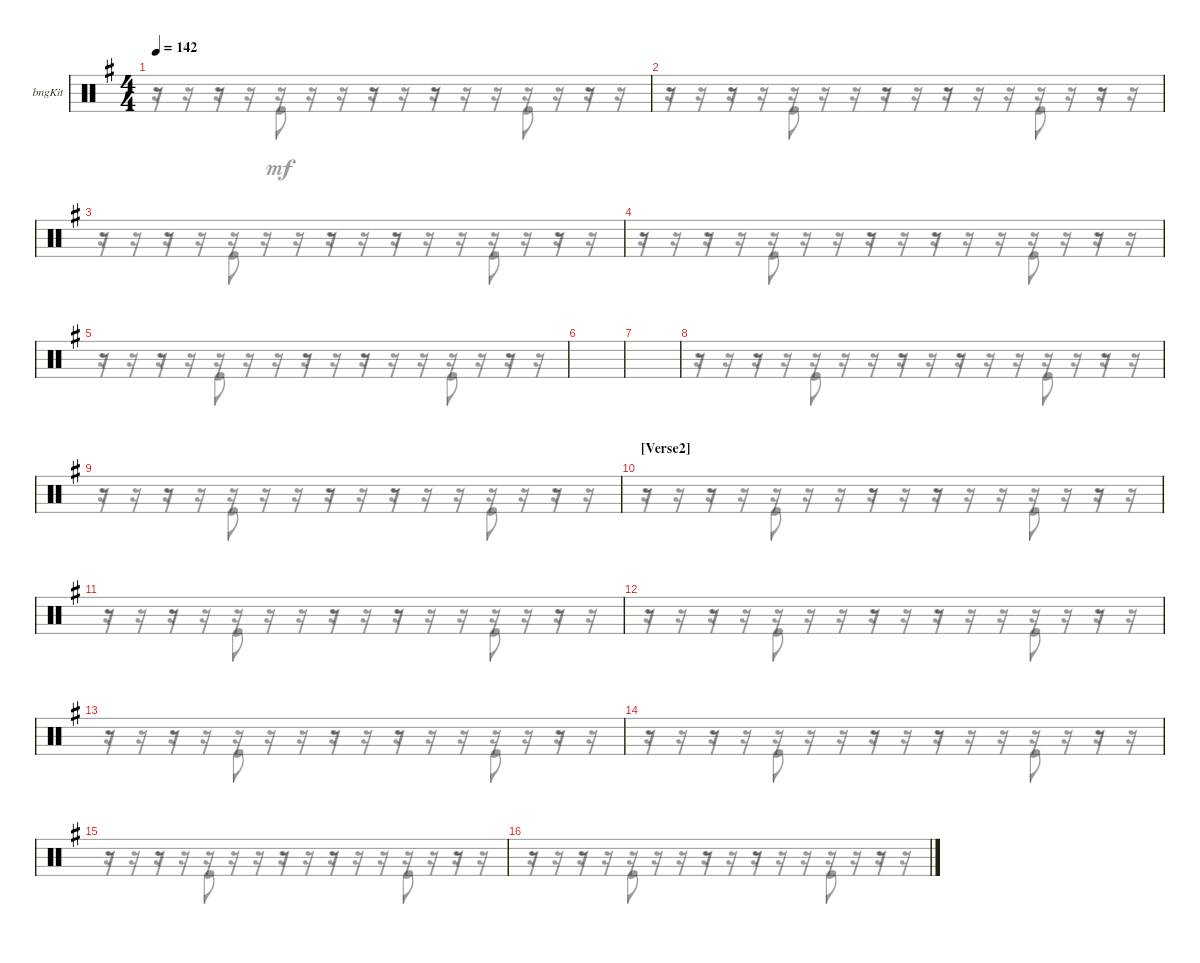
\bracketExtendMode groupsimilarinstruments
\firstSystemTrackNameOrientation horizontal
\otherSystemsTrackNameOrientation horizontal
\track ("Bongos" "bngKit") {instrument percussion}
\staff {score}
\articulation defaults
\voice
\ts (4 4)
\tempo 142
\clef neutral
\ks eminor
|
|
|
|
|
|
|
|
|
\section ("" "[Verse2]")
|
|
|
|
|
|
\voice
\clef neutral
\ks eminor
r.16{dy mf} r.16 r.16 r.16 r.16 r.16 r.16 r.16 r.16 r.16 r.16 r.16 r.16 r.16 r.16 r.16 |
r.16 r.16 r.16 r.16 r.16 r.16 r.16 r.16 r.16 r.16 r.16 r.16 r.16 r.16 r.16 r.16 |
r.16 r.16 r.16 r.16 r.16 r.16 r.16 r.16 r.16 r.16 r.16 r.16 r.16 r.16 r.16 r.16 |
r.16 r.16 r.16 r.16 r.16 r.16 r.16 r.16 r.16 r.16 r.16 r.16 r.16 r.16 r.16 r.16 |
r.16 r.16 r.16 r.16 r.16 r.16 r.16 r.16 r.16 r.16 r.16 r.16 r.16 r.16 r.16 r.16 |
|
|
r.16 r.16 r.16 r.16 r.16 r.16 r.16 r.16 r.16 r.16 r.16 r.16 r.16 r.16 r.16 r.16 |
r.16 r.16 r.16 r.16 r.16 r.16 r.16 r.16 r.16 r.16 r.16 r.16 r.16 r.16 r.16 r.16 |
r.16 r.16 r.16 r.16 r.16 r.16 r.16 r.16 r.16 r.16 r.16 r.16 r.16 r.16 r.16 r.16 |
r.16 r.16 r.16 r.16 r.16 r.16 r.16 r.16 r.16 r.16 r.16 r.16 r.16 r.16 r.16 r.16 |
r.16 r.16 r.16 r.16 r.16 r.16 r.16 r.16 r.16 r.16 r.16 r.16 r.16 r.16 r.16 r.16 |
r.16 r.16 r.16 r.16 r.16 r.16 r.16 r.16 r.16 r.16 r.16 r.16 r.16 r.16 r.16 r.16 |
r.16 r.16 r.16 r.16 r.16 r.16 r.16 r.16 r.16 r.16 r.16 r.16 r.16 r.16 r.16 r.16 |
r.16 r.16 r.16 r.16 r.16 r.16 r.16 r.16 r.16 r.16 r.16 r.16 r.16 r.16 r.16 r.16 |
r.16 r.16 r.16 r.16 r.16 r.16 r.16 r.16 r.16 r.16 r.16 r.16 r.16 r.16 r.16 r.16
\voice
\clef neutral
\ottava regular
\simile none
\ks eminor
r.16{dy mf} r.16 r.16 r.16 r.16 r.16 r.16 r.16 r.16 r.16 r.16 r.16 r.16 r.16 r.16 r.16 |
r.16 r.16 r.16 r.16 r.16 r.16 r.16 r.16 r.16 r.16 r.16 r.16 r.16 r.16 r.16 r.16 |
r.16 r.16 r.16 r.16 r.16 r.16 r.16 r.16 r.16 r.16 r.16 r.16 r.16 r.16 r.16 r.16 |
r.16 r.16 r.16 r.16 r.16 r.16 r.16 r.16 r.16 r.16 r.16 r.16 r.16 r.16 r.16 r.16 |
r.16 r.16 r.16 r.16 r.16 r.16 r.16 r.16 r.16 r.16 r.16 r.16 r.16 r.16 r.16 r.16 |
|
|
r.16 r.16 r.16 r.16 r.16 r.16 r.16 r.16 r.16 r.16 r.16 r.16 r.16 r.16 r.16 r.16 |
r.16 r.16 r.16 r.16 r.16 r.16 r.16 r.16 r.16 r.16 r.16 r.16 r.16 r.16 r.16 r.16 |
r.16 r.16 r.16 r.16 r.16 r.16 r.16 r.16 r.16 r.16 r.16 r.16 r.16 r.16 r.16 r.16 |
r.16 r.16 r.16 r.16 r.16 r.16 r.16 r.16 r.16 r.16 r.16 r.16 r.16 r.16 r.16 r.16 |
r.16 r.16 r.16 r.16 r.16 r.16 r.16 r.16 r.16 r.16 r.16 r.16 r.16 r.16 r.16 r.16 |
r.16 r.16 r.16 r.16 r.16 r.16 r.16 r.16 r.16 r.16 r.16 r.16 r.16 r.16 r.16 r.16 |
r.16 r.16 r.16 r.16 r.16 r.16 r.16 r.16 r.16 r.16 r.16 r.16 r.16 r.16 r.16 r.16 |
r.16 r.16 r.16 r.16 r.16 r.16 r.16 r.16 r.16 r.16 r.16 r.16 r.16 r.16 r.16 r.16 |
r.16 r.16 r.16 r.16 r.16 r.16 r.16 r.16 r.16 r.16 r.16 r.16 r.16 r.16 r.16 r.16
\voice
\clef neutral
\ottava regular
\simile none
\ks eminor
r.8{dy mf} r.8 "Kick (hit)".8 r.16 r.8 r.8 r.16 "Kick (hit)".8 r.8 |
r.8 r.8 "Kick (hit)".8 r.16 r.8 r.8 r.16 "Kick (hit)".8 r.8 |
r.8 r.8 "Kick (hit)".8 r.16 r.8 r.8 r.16 "Kick (hit)".8 r.8 |
r.8 r.8 "Kick (hit)".8 r.16 r.8 r.8 r.16 "Kick (hit)".8 r.8 |
r.8 r.8 "Kick (hit)".8 r.16 r.8 r.8 r.16 "Kick (hit)".8 r.8 |
|
|
r.8 r.8 "Kick (hit)".8 r.16 r.8 r.8 r.16 "Kick (hit)".8 r.8 |
r.8 r.8 "Kick (hit)".8 r.16 r.8 r.8 r.16 "Kick (hit)".8 r.8 |
r.8 r.8 "Kick (hit)".8 r.16 r.8 r.8 r.16 "Kick (hit)".8 r.8 |
r.8 r.8 "Kick (hit)".8 r.16 r.8 r.8 r.16 "Kick (hit)".8 r.8 |
r.8 r.8 "Kick (hit)".8 r.16 r.8 r.8 r.16 "Kick (hit)".8 r.8 |
r.8 r.8 "Kick (hit)".8 r.16 r.8 r.8 r.16 "Kick (hit)".8 r.8 |
r.8 r.8 "Kick (hit)".8 r.16 r.8 r.8 r.16 "Kick (hit)".8 r.8 |
r.8 r.8 "Kick (hit)".8 r.16 r.8 r.8 r.16 "Kick (hit)".8 r.8 |
r.8 r.8 "Kick (hit)".8 r.16 r.8 r.8 r.16 "Kick (hit)".8 r.8
